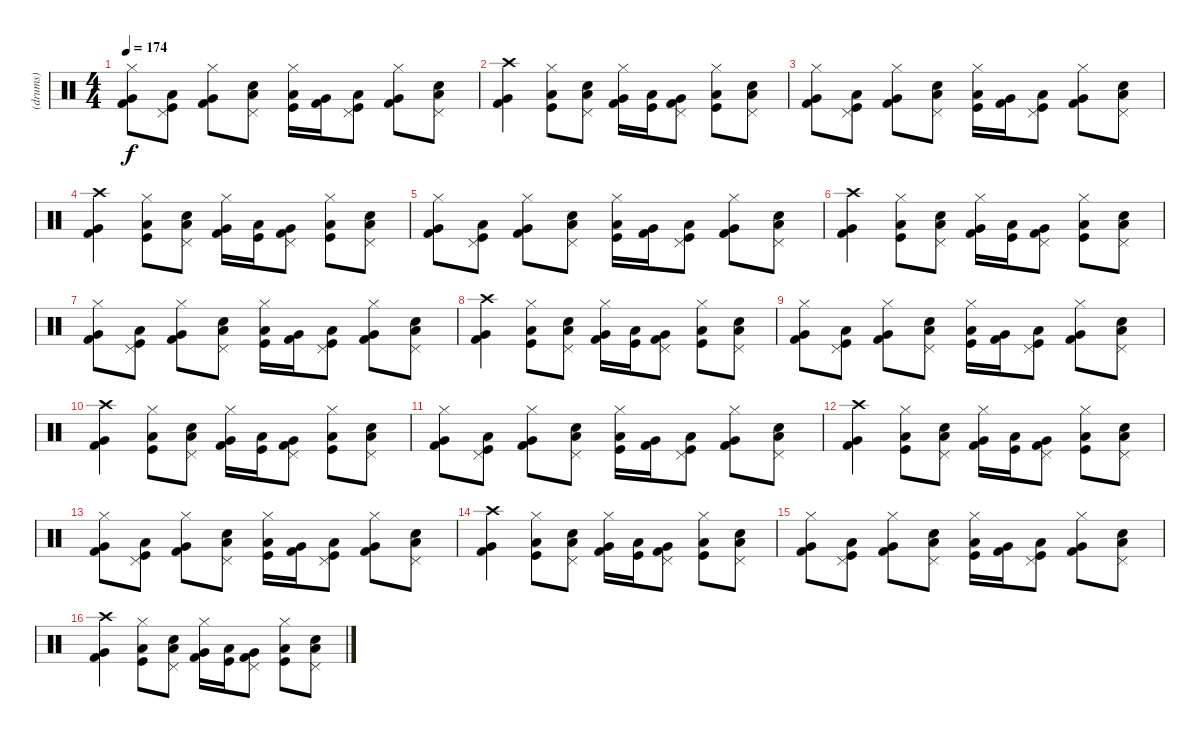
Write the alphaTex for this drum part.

\track ("(drums)" "(drums)") {instrument percussion}
\staff {score}
\articulation defaults
\ts (4 4)
\tempo 174
\clef neutral
\ks c
("Hi-Hat (closed)" "Kick (hit) 2" "Very Low Tom (hit)").8{dy f} ("Pedal Hi-Hat (hit)" "Kick (hit)" "Low Tom (hit)").8 ("Hi-Hat (closed)" "Kick (hit) 2" "Very Low Tom (hit)").8 ("Pedal Hi-Hat (hit)" "Snare (hit) 2" "Low Floor Tom (hit)").8 ("Hi-Hat (closed)" "Kick (hit)" "Low Tom (hit)").16 ("Kick (hit) 2" "Very Low Tom (hit)").16 ("Pedal Hi-Hat (hit)" "Kick (hit)" "Low Tom (hit)").8 ("Hi-Hat (closed)" "Kick (hit) 2" "Very Low Tom (hit)").8 ("Pedal Hi-Hat (hit)" "Snare (hit) 2" "Low Floor Tom (hit)").8 |
("Crash high (hit)" "Kick (hit) 2" "Very Low Tom (hit)").4 ("Hi-Hat (closed)" "Kick (hit)" "Low Tom (hit)").8 ("Pedal Hi-Hat (hit)" "Snare (hit) 2" "Low Floor Tom (hit)").8 ("Hi-Hat (closed)" "Kick (hit) 2" "Very Low Tom (hit)").16 ("Kick (hit)" "Low Tom (hit)").16 ("Pedal Hi-Hat (hit)" "Kick (hit) 2" "Very Low Tom (hit)").8 ("Hi-Hat (closed)" "Kick (hit)" "Low Tom (hit)").8 ("Pedal Hi-Hat (hit)" "Snare (hit) 2" "Low Floor Tom (hit)").8 |
("Hi-Hat (closed)" "Kick (hit) 2" "Very Low Tom (hit)").8 ("Pedal Hi-Hat (hit)" "Kick (hit)" "Low Tom (hit)").8 ("Hi-Hat (closed)" "Kick (hit) 2" "Very Low Tom (hit)").8 ("Pedal Hi-Hat (hit)" "Snare (hit) 2" "Low Floor Tom (hit)").8 ("Hi-Hat (closed)" "Kick (hit)" "Low Tom (hit)").16 ("Kick (hit) 2" "Very Low Tom (hit)").16 ("Pedal Hi-Hat (hit)" "Kick (hit)" "Low Tom (hit)").8 ("Hi-Hat (closed)" "Kick (hit) 2" "Very Low Tom (hit)").8 ("Pedal Hi-Hat (hit)" "Snare (hit) 2" "Low Floor Tom (hit)").8 |
("Crash high (hit)" "Kick (hit) 2" "Very Low Tom (hit)").4 ("Hi-Hat (closed)" "Kick (hit)" "Low Tom (hit)").8 ("Pedal Hi-Hat (hit)" "Snare (hit) 2" "Low Floor Tom (hit)").8 ("Hi-Hat (closed)" "Kick (hit) 2" "Very Low Tom (hit)").16 ("Kick (hit)" "Low Tom (hit)").16 ("Pedal Hi-Hat (hit)" "Kick (hit) 2" "Very Low Tom (hit)").8 ("Hi-Hat (closed)" "Kick (hit)" "Low Tom (hit)").8 ("Pedal Hi-Hat (hit)" "Snare (hit) 2" "Low Floor Tom (hit)").8 |
("Hi-Hat (closed)" "Kick (hit) 2" "Very Low Tom (hit)").8 ("Pedal Hi-Hat (hit)" "Kick (hit)" "Low Tom (hit)").8 ("Hi-Hat (closed)" "Kick (hit) 2" "Very Low Tom (hit)").8 ("Pedal Hi-Hat (hit)" "Snare (hit) 2" "Low Floor Tom (hit)").8 ("Hi-Hat (closed)" "Kick (hit)" "Low Tom (hit)").16 ("Kick (hit) 2" "Very Low Tom (hit)").16 ("Pedal Hi-Hat (hit)" "Kick (hit)" "Low Tom (hit)").8 ("Hi-Hat (closed)" "Kick (hit) 2" "Very Low Tom (hit)").8 ("Pedal Hi-Hat (hit)" "Snare (hit) 2" "Low Floor Tom (hit)").8 |
("Crash high (hit)" "Kick (hit) 2" "Very Low Tom (hit)").4 ("Hi-Hat (closed)" "Kick (hit)" "Low Tom (hit)").8 ("Pedal Hi-Hat (hit)" "Snare (hit) 2" "Low Floor Tom (hit)").8 ("Hi-Hat (closed)" "Kick (hit) 2" "Very Low Tom (hit)").16 ("Kick (hit)" "Low Tom (hit)").16 ("Pedal Hi-Hat (hit)" "Kick (hit) 2" "Very Low Tom (hit)").8 ("Hi-Hat (closed)" "Kick (hit)" "Low Tom (hit)").8 ("Pedal Hi-Hat (hit)" "Snare (hit) 2" "Low Floor Tom (hit)").8 |
("Hi-Hat (closed)" "Kick (hit) 2" "Very Low Tom (hit)").8 ("Pedal Hi-Hat (hit)" "Kick (hit)" "Low Tom (hit)").8 ("Hi-Hat (closed)" "Kick (hit) 2" "Very Low Tom (hit)").8 ("Pedal Hi-Hat (hit)" "Snare (hit) 2" "Low Floor Tom (hit)").8 ("Hi-Hat (closed)" "Kick (hit)" "Low Tom (hit)").16 ("Kick (hit) 2" "Very Low Tom (hit)").16 ("Pedal Hi-Hat (hit)" "Kick (hit)" "Low Tom (hit)").8 ("Hi-Hat (closed)" "Kick (hit) 2" "Very Low Tom (hit)").8 ("Pedal Hi-Hat (hit)" "Snare (hit) 2" "Low Floor Tom (hit)").8 |
("Crash high (hit)" "Kick (hit) 2" "Very Low Tom (hit)").4 ("Hi-Hat (closed)" "Kick (hit)" "Low Tom (hit)").8 ("Pedal Hi-Hat (hit)" "Snare (hit) 2" "Low Floor Tom (hit)").8 ("Hi-Hat (closed)" "Kick (hit) 2" "Very Low Tom (hit)").16 ("Kick (hit)" "Low Tom (hit)").16 ("Pedal Hi-Hat (hit)" "Kick (hit) 2" "Very Low Tom (hit)").8 ("Hi-Hat (closed)" "Kick (hit)" "Low Tom (hit)").8 ("Pedal Hi-Hat (hit)" "Snare (hit) 2" "Low Floor Tom (hit)").8 |
("Hi-Hat (closed)" "Kick (hit) 2" "Very Low Tom (hit)").8 ("Pedal Hi-Hat (hit)" "Kick (hit)" "Low Tom (hit)").8 ("Hi-Hat (closed)" "Kick (hit) 2" "Very Low Tom (hit)").8 ("Pedal Hi-Hat (hit)" "Snare (hit) 2" "Low Floor Tom (hit)").8 ("Hi-Hat (closed)" "Kick (hit)" "Low Tom (hit)").16 ("Kick (hit) 2" "Very Low Tom (hit)").16 ("Pedal Hi-Hat (hit)" "Kick (hit)" "Low Tom (hit)").8 ("Hi-Hat (closed)" "Kick (hit) 2" "Very Low Tom (hit)").8 ("Pedal Hi-Hat (hit)" "Snare (hit) 2" "Low Floor Tom (hit)").8 |
("Crash high (hit)" "Kick (hit) 2" "Very Low Tom (hit)").4 ("Hi-Hat (closed)" "Kick (hit)" "Low Tom (hit)").8 ("Pedal Hi-Hat (hit)" "Snare (hit) 2" "Low Floor Tom (hit)").8 ("Hi-Hat (closed)" "Kick (hit) 2" "Very Low Tom (hit)").16 ("Kick (hit)" "Low Tom (hit)").16 ("Pedal Hi-Hat (hit)" "Kick (hit) 2" "Very Low Tom (hit)").8 ("Hi-Hat (closed)" "Kick (hit)" "Low Tom (hit)").8 ("Pedal Hi-Hat (hit)" "Snare (hit) 2" "Low Floor Tom (hit)").8 |
("Hi-Hat (closed)" "Kick (hit) 2" "Very Low Tom (hit)").8 ("Pedal Hi-Hat (hit)" "Kick (hit)" "Low Tom (hit)").8 ("Hi-Hat (closed)" "Kick (hit) 2" "Very Low Tom (hit)").8 ("Pedal Hi-Hat (hit)" "Snare (hit) 2" "Low Floor Tom (hit)").8 ("Hi-Hat (closed)" "Kick (hit)" "Low Tom (hit)").16 ("Kick (hit) 2" "Very Low Tom (hit)").16 ("Pedal Hi-Hat (hit)" "Kick (hit)" "Low Tom (hit)").8 ("Hi-Hat (closed)" "Kick (hit) 2" "Very Low Tom (hit)").8 ("Pedal Hi-Hat (hit)" "Snare (hit) 2" "Low Floor Tom (hit)").8 |
("Crash high (hit)" "Kick (hit) 2" "Very Low Tom (hit)").4 ("Hi-Hat (closed)" "Kick (hit)" "Low Tom (hit)").8 ("Pedal Hi-Hat (hit)" "Snare (hit) 2" "Low Floor Tom (hit)").8 ("Hi-Hat (closed)" "Kick (hit) 2" "Very Low Tom (hit)").16 ("Kick (hit)" "Low Tom (hit)").16 ("Pedal Hi-Hat (hit)" "Kick (hit) 2" "Very Low Tom (hit)").8 ("Hi-Hat (closed)" "Kick (hit)" "Low Tom (hit)").8 ("Pedal Hi-Hat (hit)" "Snare (hit) 2" "Low Floor Tom (hit)").8 |
("Hi-Hat (closed)" "Kick (hit) 2" "Very Low Tom (hit)").8 ("Pedal Hi-Hat (hit)" "Kick (hit)" "Low Tom (hit)").8 ("Hi-Hat (closed)" "Kick (hit) 2" "Very Low Tom (hit)").8 ("Pedal Hi-Hat (hit)" "Snare (hit) 2" "Low Floor Tom (hit)").8 ("Hi-Hat (closed)" "Kick (hit)" "Low Tom (hit)").16 ("Kick (hit) 2" "Very Low Tom (hit)").16 ("Pedal Hi-Hat (hit)" "Kick (hit)" "Low Tom (hit)").8 ("Hi-Hat (closed)" "Kick (hit) 2" "Very Low Tom (hit)").8 ("Pedal Hi-Hat (hit)" "Snare (hit) 2" "Low Floor Tom (hit)").8 |
("Crash high (hit)" "Kick (hit) 2" "Very Low Tom (hit)").4 ("Hi-Hat (closed)" "Kick (hit)" "Low Tom (hit)").8 ("Pedal Hi-Hat (hit)" "Snare (hit) 2" "Low Floor Tom (hit)").8 ("Hi-Hat (closed)" "Kick (hit) 2" "Very Low Tom (hit)").16 ("Kick (hit)" "Low Tom (hit)").16 ("Pedal Hi-Hat (hit)" "Kick (hit) 2" "Very Low Tom (hit)").8 ("Hi-Hat (closed)" "Kick (hit)" "Low Tom (hit)").8 ("Pedal Hi-Hat (hit)" "Snare (hit) 2" "Low Floor Tom (hit)").8 |
("Hi-Hat (closed)" "Kick (hit) 2" "Very Low Tom (hit)").8 ("Pedal Hi-Hat (hit)" "Kick (hit)" "Low Tom (hit)").8 ("Hi-Hat (closed)" "Kick (hit) 2" "Very Low Tom (hit)").8 ("Pedal Hi-Hat (hit)" "Snare (hit) 2" "Low Floor Tom (hit)").8 ("Hi-Hat (closed)" "Kick (hit)" "Low Tom (hit)").16 ("Kick (hit) 2" "Very Low Tom (hit)").16 ("Pedal Hi-Hat (hit)" "Kick (hit)" "Low Tom (hit)").8 ("Hi-Hat (closed)" "Kick (hit) 2" "Very Low Tom (hit)").8 ("Pedal Hi-Hat (hit)" "Snare (hit) 2" "Low Floor Tom (hit)").8 |
("Crash high (hit)" "Kick (hit) 2" "Very Low Tom (hit)").4 ("Hi-Hat (closed)" "Kick (hit)" "Low Tom (hit)").8 ("Pedal Hi-Hat (hit)" "Snare (hit) 2" "Low Floor Tom (hit)").8 ("Hi-Hat (closed)" "Kick (hit) 2" "Very Low Tom (hit)").16 ("Kick (hit)" "Low Tom (hit)").16 ("Pedal Hi-Hat (hit)" "Kick (hit) 2" "Very Low Tom (hit)").8 ("Hi-Hat (closed)" "Kick (hit)" "Low Tom (hit)").8 ("Pedal Hi-Hat (hit)" "Snare (hit) 2" "Low Floor Tom (hit)").8
